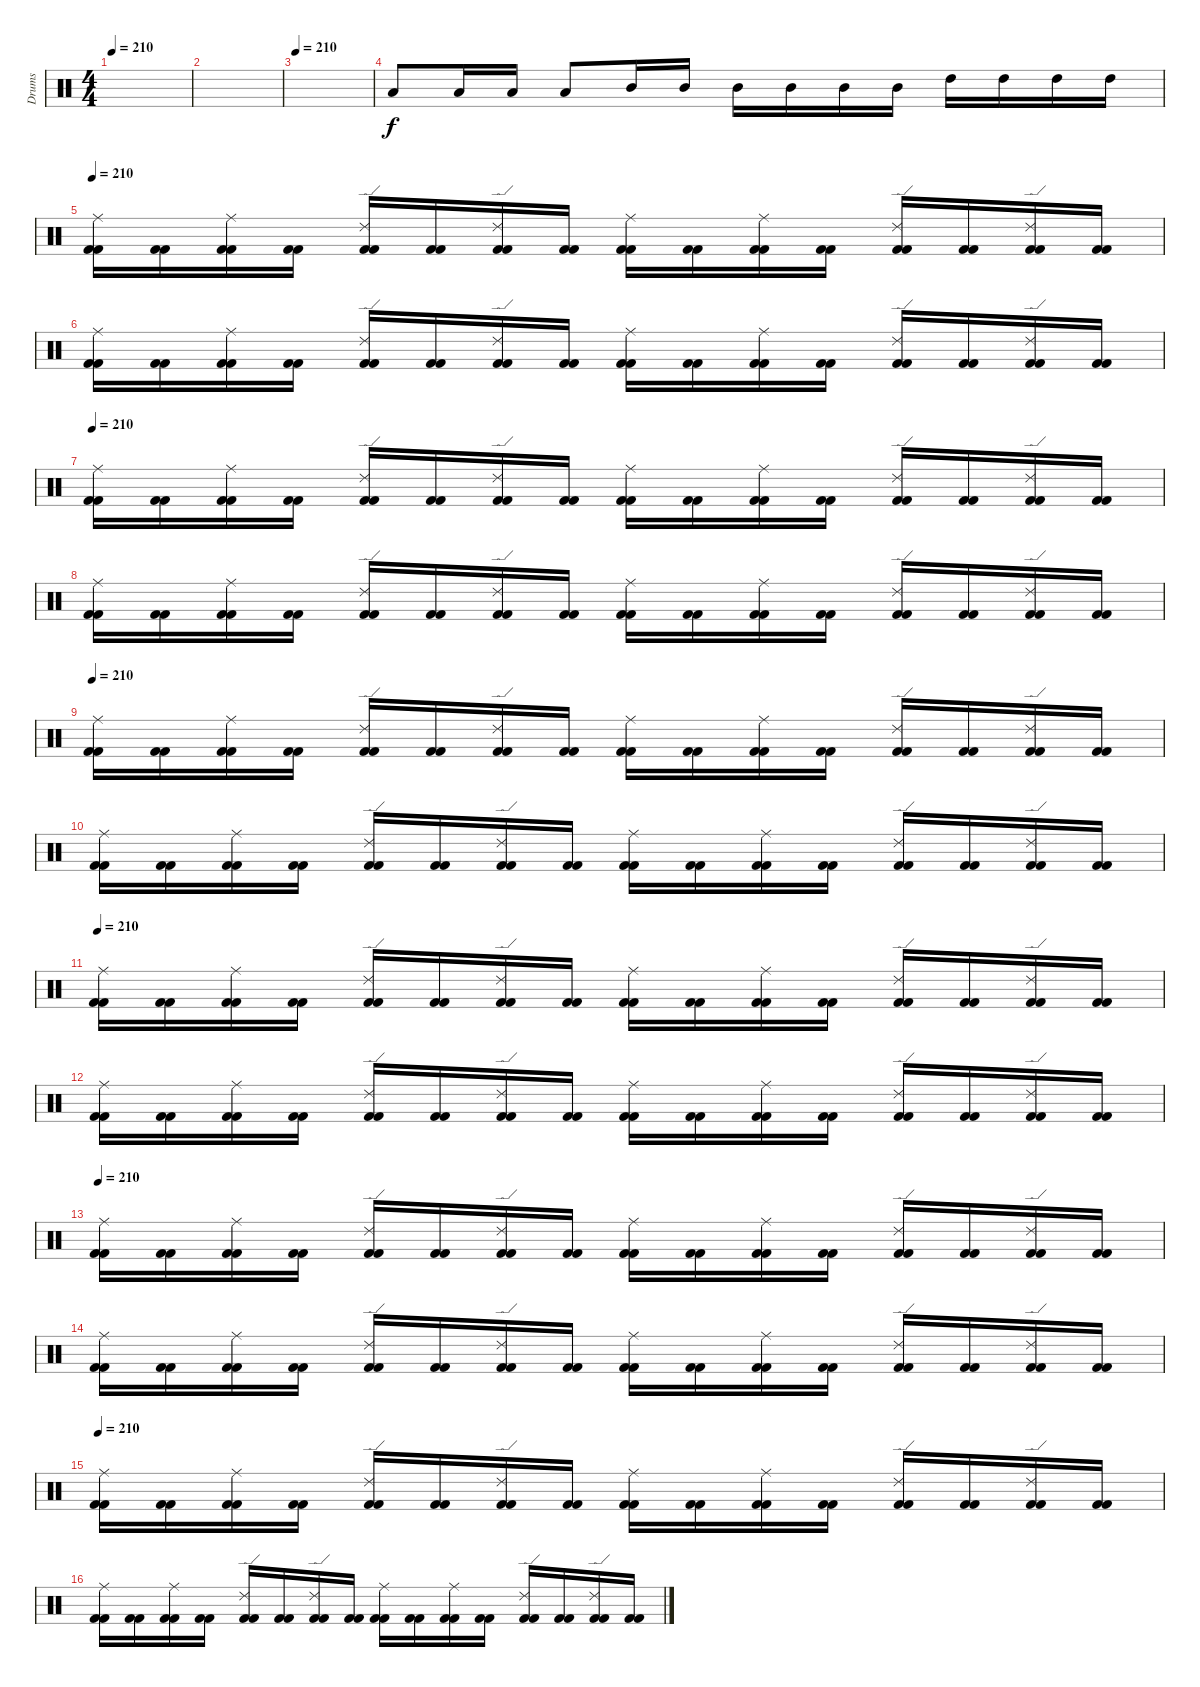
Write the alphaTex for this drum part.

\track ("Drums" "Drums") {instrument percussion}
\staff {score}
\articulation defaults
\ts (4 4)
\tempo 210
\clef neutral
\ks c
|
|
\tempo 210
|
"Low Tom (hit)".8 "Low Tom (hit)".16 "Low Tom (hit)".16 "Low Tom (hit)".8 "Mid Tom (hit)".16 "Mid Tom (hit)".16 "Mid Tom (hit)".16 "Mid Tom (hit)".16 "Mid Tom (hit)".16 "Mid Tom (hit)".16 "High Tom (hit)".16 "High Tom (hit)".16 "High Tom (hit)".16 "High Tom (hit)".16 |
\tempo 210
("Kick (hit) 2" "Kick (hit) 2" "Ride (middle)").16 ("Kick (hit) 2" "Kick (hit) 2").16 ("Kick (hit) 2" "Kick (hit) 2" "Ride (middle)").16 ("Kick (hit) 2" "Kick (hit) 2").16 ("Kick (hit) 2" "Kick (hit) 2" "Ride (edge) 2").16 ("Kick (hit) 2" "Kick (hit) 2").16 ("Kick (hit) 2" "Kick (hit) 2" "Ride (edge) 2").16 ("Kick (hit) 2" "Kick (hit) 2").16 ("Kick (hit) 2" "Kick (hit) 2" "Ride (middle)").16 ("Kick (hit) 2" "Kick (hit) 2").16 ("Kick (hit) 2" "Kick (hit) 2" "Ride (middle)").16 ("Kick (hit) 2" "Kick (hit) 2").16 ("Kick (hit) 2" "Kick (hit) 2" "Ride (edge) 2").16 ("Kick (hit) 2" "Kick (hit) 2").16 ("Kick (hit) 2" "Kick (hit) 2" "Ride (edge) 2").16 ("Kick (hit) 2" "Kick (hit) 2").16 |
("Kick (hit) 2" "Kick (hit) 2" "Ride (middle)").16 ("Kick (hit) 2" "Kick (hit) 2").16 ("Kick (hit) 2" "Kick (hit) 2" "Ride (middle)").16 ("Kick (hit) 2" "Kick (hit) 2").16 ("Kick (hit) 2" "Kick (hit) 2" "Ride (edge) 2").16 ("Kick (hit) 2" "Kick (hit) 2").16 ("Kick (hit) 2" "Kick (hit) 2" "Ride (edge) 2").16 ("Kick (hit) 2" "Kick (hit) 2").16 ("Kick (hit) 2" "Kick (hit) 2" "Ride (middle)").16 ("Kick (hit) 2" "Kick (hit) 2").16 ("Kick (hit) 2" "Kick (hit) 2" "Ride (middle)").16 ("Kick (hit) 2" "Kick (hit) 2").16 ("Kick (hit) 2" "Kick (hit) 2" "Ride (edge) 2").16 ("Kick (hit) 2" "Kick (hit) 2").16 ("Kick (hit) 2" "Kick (hit) 2" "Ride (edge) 2").16 ("Kick (hit) 2" "Kick (hit) 2").16 |
\tempo 210
("Kick (hit) 2" "Kick (hit) 2" "Ride (middle)").16 ("Kick (hit) 2" "Kick (hit) 2").16 ("Kick (hit) 2" "Kick (hit) 2" "Ride (middle)").16 ("Kick (hit) 2" "Kick (hit) 2").16 ("Kick (hit) 2" "Kick (hit) 2" "Ride (edge) 2").16 ("Kick (hit) 2" "Kick (hit) 2").16 ("Kick (hit) 2" "Kick (hit) 2" "Ride (edge) 2").16 ("Kick (hit) 2" "Kick (hit) 2").16 ("Kick (hit) 2" "Kick (hit) 2" "Ride (middle)").16 ("Kick (hit) 2" "Kick (hit) 2").16 ("Kick (hit) 2" "Kick (hit) 2" "Ride (middle)").16 ("Kick (hit) 2" "Kick (hit) 2").16 ("Kick (hit) 2" "Kick (hit) 2" "Ride (edge) 2").16 ("Kick (hit) 2" "Kick (hit) 2").16 ("Kick (hit) 2" "Kick (hit) 2" "Ride (edge) 2").16 ("Kick (hit) 2" "Kick (hit) 2").16 |
("Kick (hit) 2" "Kick (hit) 2" "Ride (middle)").16 ("Kick (hit) 2" "Kick (hit) 2").16 ("Kick (hit) 2" "Kick (hit) 2" "Ride (middle)").16 ("Kick (hit) 2" "Kick (hit) 2").16 ("Kick (hit) 2" "Kick (hit) 2" "Ride (edge) 2").16 ("Kick (hit) 2" "Kick (hit) 2").16 ("Kick (hit) 2" "Kick (hit) 2" "Ride (edge) 2").16 ("Kick (hit) 2" "Kick (hit) 2").16 ("Kick (hit) 2" "Kick (hit) 2" "Ride (middle)").16 ("Kick (hit) 2" "Kick (hit) 2").16 ("Kick (hit) 2" "Kick (hit) 2" "Ride (middle)").16 ("Kick (hit) 2" "Kick (hit) 2").16 ("Kick (hit) 2" "Kick (hit) 2" "Ride (edge) 2").16 ("Kick (hit) 2" "Kick (hit) 2").16 ("Kick (hit) 2" "Kick (hit) 2" "Ride (edge) 2").16 ("Kick (hit) 2" "Kick (hit) 2").16 |
\tempo 210
("Kick (hit) 2" "Kick (hit) 2" "Ride (middle)").16 ("Kick (hit) 2" "Kick (hit) 2").16 ("Kick (hit) 2" "Kick (hit) 2" "Ride (middle)").16 ("Kick (hit) 2" "Kick (hit) 2").16 ("Kick (hit) 2" "Kick (hit) 2" "Ride (edge) 2").16 ("Kick (hit) 2" "Kick (hit) 2").16 ("Kick (hit) 2" "Kick (hit) 2" "Ride (edge) 2").16 ("Kick (hit) 2" "Kick (hit) 2").16 ("Kick (hit) 2" "Kick (hit) 2" "Ride (middle)").16 ("Kick (hit) 2" "Kick (hit) 2").16 ("Kick (hit) 2" "Kick (hit) 2" "Ride (middle)").16 ("Kick (hit) 2" "Kick (hit) 2").16 ("Kick (hit) 2" "Kick (hit) 2" "Ride (edge) 2").16 ("Kick (hit) 2" "Kick (hit) 2").16 ("Kick (hit) 2" "Kick (hit) 2" "Ride (edge) 2").16 ("Kick (hit) 2" "Kick (hit) 2").16 |
("Kick (hit) 2" "Kick (hit) 2" "Ride (middle)").16 ("Kick (hit) 2" "Kick (hit) 2").16 ("Kick (hit) 2" "Kick (hit) 2" "Ride (middle)").16 ("Kick (hit) 2" "Kick (hit) 2").16 ("Kick (hit) 2" "Kick (hit) 2" "Ride (edge) 2").16 ("Kick (hit) 2" "Kick (hit) 2").16 ("Kick (hit) 2" "Kick (hit) 2" "Ride (edge) 2").16 ("Kick (hit) 2" "Kick (hit) 2").16 ("Kick (hit) 2" "Kick (hit) 2" "Ride (middle)").16 ("Kick (hit) 2" "Kick (hit) 2").16 ("Kick (hit) 2" "Kick (hit) 2" "Ride (middle)").16 ("Kick (hit) 2" "Kick (hit) 2").16 ("Kick (hit) 2" "Kick (hit) 2" "Ride (edge) 2").16 ("Kick (hit) 2" "Kick (hit) 2").16 ("Kick (hit) 2" "Kick (hit) 2" "Ride (edge) 2").16 ("Kick (hit) 2" "Kick (hit) 2").16 |
\tempo 210
("Kick (hit) 2" "Kick (hit) 2" "Ride (middle)").16 ("Kick (hit) 2" "Kick (hit) 2").16 ("Kick (hit) 2" "Kick (hit) 2" "Ride (middle)").16 ("Kick (hit) 2" "Kick (hit) 2").16 ("Kick (hit) 2" "Kick (hit) 2" "Ride (edge) 2").16 ("Kick (hit) 2" "Kick (hit) 2").16 ("Kick (hit) 2" "Kick (hit) 2" "Ride (edge) 2").16 ("Kick (hit) 2" "Kick (hit) 2").16 ("Kick (hit) 2" "Kick (hit) 2" "Ride (middle)").16 ("Kick (hit) 2" "Kick (hit) 2").16 ("Kick (hit) 2" "Kick (hit) 2" "Ride (middle)").16 ("Kick (hit) 2" "Kick (hit) 2").16 ("Kick (hit) 2" "Kick (hit) 2" "Ride (edge) 2").16 ("Kick (hit) 2" "Kick (hit) 2").16 ("Kick (hit) 2" "Kick (hit) 2" "Ride (edge) 2").16 ("Kick (hit) 2" "Kick (hit) 2").16 |
("Kick (hit) 2" "Kick (hit) 2" "Ride (middle)").16 ("Kick (hit) 2" "Kick (hit) 2").16 ("Kick (hit) 2" "Kick (hit) 2" "Ride (middle)").16 ("Kick (hit) 2" "Kick (hit) 2").16 ("Kick (hit) 2" "Kick (hit) 2" "Ride (edge) 2").16 ("Kick (hit) 2" "Kick (hit) 2").16 ("Kick (hit) 2" "Kick (hit) 2" "Ride (edge) 2").16 ("Kick (hit) 2" "Kick (hit) 2").16 ("Kick (hit) 2" "Kick (hit) 2" "Ride (middle)").16 ("Kick (hit) 2" "Kick (hit) 2").16 ("Kick (hit) 2" "Kick (hit) 2" "Ride (middle)").16 ("Kick (hit) 2" "Kick (hit) 2").16 ("Kick (hit) 2" "Kick (hit) 2" "Ride (edge) 2").16 ("Kick (hit) 2" "Kick (hit) 2").16 ("Kick (hit) 2" "Kick (hit) 2" "Ride (edge) 2").16 ("Kick (hit) 2" "Kick (hit) 2").16 |
\tempo 210
("Kick (hit) 2" "Kick (hit) 2" "Ride (middle)").16 ("Kick (hit) 2" "Kick (hit) 2").16 ("Kick (hit) 2" "Kick (hit) 2" "Ride (middle)").16 ("Kick (hit) 2" "Kick (hit) 2").16 ("Kick (hit) 2" "Kick (hit) 2" "Ride (edge) 2").16 ("Kick (hit) 2" "Kick (hit) 2").16 ("Kick (hit) 2" "Kick (hit) 2" "Ride (edge) 2").16 ("Kick (hit) 2" "Kick (hit) 2").16 ("Kick (hit) 2" "Kick (hit) 2" "Ride (middle)").16 ("Kick (hit) 2" "Kick (hit) 2").16 ("Kick (hit) 2" "Kick (hit) 2" "Ride (middle)").16 ("Kick (hit) 2" "Kick (hit) 2").16 ("Kick (hit) 2" "Kick (hit) 2" "Ride (edge) 2").16 ("Kick (hit) 2" "Kick (hit) 2").16 ("Kick (hit) 2" "Kick (hit) 2" "Ride (edge) 2").16 ("Kick (hit) 2" "Kick (hit) 2").16 |
("Kick (hit) 2" "Kick (hit) 2" "Ride (middle)").16 ("Kick (hit) 2" "Kick (hit) 2").16 ("Kick (hit) 2" "Kick (hit) 2" "Ride (middle)").16 ("Kick (hit) 2" "Kick (hit) 2").16 ("Kick (hit) 2" "Kick (hit) 2" "Ride (edge) 2").16 ("Kick (hit) 2" "Kick (hit) 2").16 ("Kick (hit) 2" "Kick (hit) 2" "Ride (edge) 2").16 ("Kick (hit) 2" "Kick (hit) 2").16 ("Kick (hit) 2" "Kick (hit) 2" "Ride (middle)").16 ("Kick (hit) 2" "Kick (hit) 2").16 ("Kick (hit) 2" "Kick (hit) 2" "Ride (middle)").16 ("Kick (hit) 2" "Kick (hit) 2").16 ("Kick (hit) 2" "Kick (hit) 2" "Ride (edge) 2").16 ("Kick (hit) 2" "Kick (hit) 2").16 ("Kick (hit) 2" "Kick (hit) 2" "Ride (edge) 2").16 ("Kick (hit) 2" "Kick (hit) 2").16 |
\tempo 210
("Kick (hit) 2" "Kick (hit) 2" "Ride (middle)").16 ("Kick (hit) 2" "Kick (hit) 2").16 ("Kick (hit) 2" "Kick (hit) 2" "Ride (middle)").16 ("Kick (hit) 2" "Kick (hit) 2").16 ("Kick (hit) 2" "Kick (hit) 2" "Ride (edge) 2").16 ("Kick (hit) 2" "Kick (hit) 2").16 ("Kick (hit) 2" "Kick (hit) 2" "Ride (edge) 2").16 ("Kick (hit) 2" "Kick (hit) 2").16 ("Kick (hit) 2" "Kick (hit) 2" "Ride (middle)").16 ("Kick (hit) 2" "Kick (hit) 2").16 ("Kick (hit) 2" "Kick (hit) 2" "Ride (middle)").16 ("Kick (hit) 2" "Kick (hit) 2").16 ("Kick (hit) 2" "Kick (hit) 2" "Ride (edge) 2").16 ("Kick (hit) 2" "Kick (hit) 2").16 ("Kick (hit) 2" "Kick (hit) 2" "Ride (edge) 2").16 ("Kick (hit) 2" "Kick (hit) 2").16 |
("Kick (hit) 2" "Kick (hit) 2" "Ride (middle)").16 ("Kick (hit) 2" "Kick (hit) 2").16 ("Kick (hit) 2" "Kick (hit) 2" "Ride (middle)").16 ("Kick (hit) 2" "Kick (hit) 2").16 ("Kick (hit) 2" "Kick (hit) 2" "Ride (edge) 2").16 ("Kick (hit) 2" "Kick (hit) 2").16 ("Kick (hit) 2" "Kick (hit) 2" "Ride (edge) 2").16 ("Kick (hit) 2" "Kick (hit) 2").16 ("Kick (hit) 2" "Kick (hit) 2" "Ride (middle)").16 ("Kick (hit) 2" "Kick (hit) 2").16 ("Kick (hit) 2" "Kick (hit) 2" "Ride (middle)").16 ("Kick (hit) 2" "Kick (hit) 2").16 ("Kick (hit) 2" "Kick (hit) 2" "Ride (edge) 2").16 ("Kick (hit) 2" "Kick (hit) 2").16 ("Kick (hit) 2" "Kick (hit) 2" "Ride (edge) 2").16 ("Kick (hit) 2" "Kick (hit) 2").16
